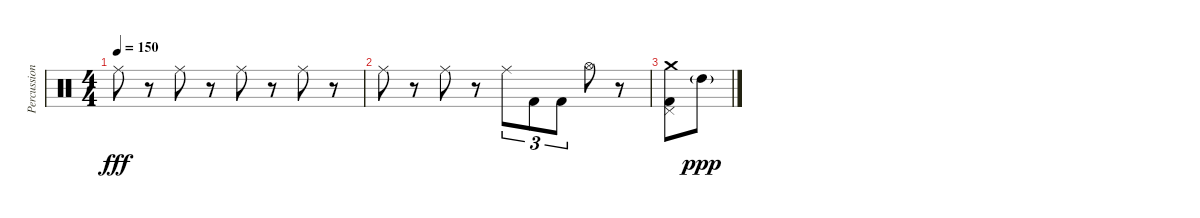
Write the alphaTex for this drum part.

\track ("Percussion" "Percussion") {instrument percussion}
\staff {score}
\articulation defaults
\ts (4 4)
\tempo 150
\clef neutral
\ks c "Ride (middle)".8{dy fff}
r.8 "Ride (middle)".8 r.8 "Ride (middle)".8 r.8 "Ride (middle)".8 r.8 |
"Ride (middle)".8 r.8 "Ride (middle)".8 r.8 "Ride (middle)".8{tu (3 2)} "Kick (hit) 2".8{tu (3 2)} "Kick (hit) 2".8{tu (3 2)} "Hi-Hat (open)".8 r.8 |
("Pedal Hi-Hat (hit)" "Crash medium (hit)" "Kick (hit) 2").8 "High Tom (hit)"{g}.8{dy ppp}
